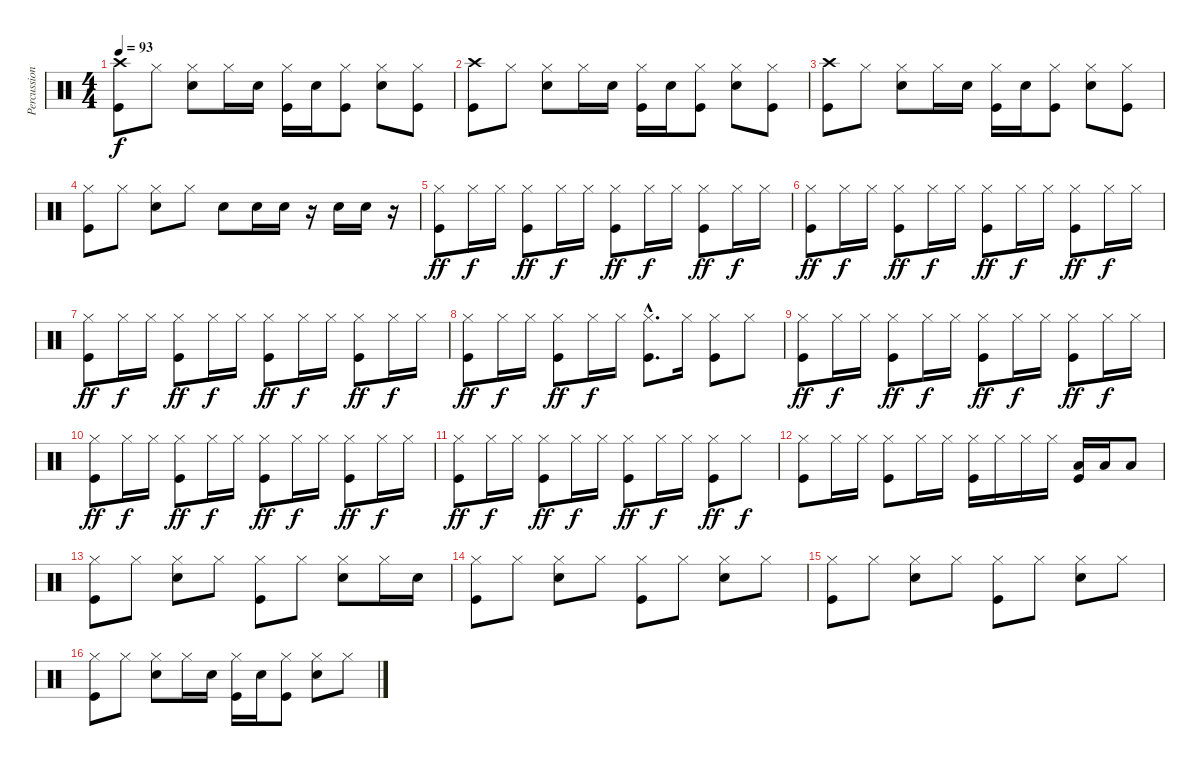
\track ("Percussion" "Percussion") {instrument percussion}
\staff {score}
\articulation defaults
\ts (4 4)
\tempo 93
\clef neutral
\ks c
("Crash high (hit)" "Kick (hit)").8{dy f} "Hi-Hat (closed)".8 ("Hi-Hat (closed)" "Snare (hit) 2").8 "Hi-Hat (closed)".16 "Snare (hit) 2".16 ("Hi-Hat (closed)" "Kick (hit)").16 "Snare (hit) 2".16 ("Hi-Hat (closed)" "Kick (hit)").8 ("Hi-Hat (closed)" "Snare (hit) 2").8 ("Hi-Hat (closed)" "Kick (hit)").8 |
("Crash high (hit)" "Kick (hit)").8 "Hi-Hat (closed)".8 ("Hi-Hat (closed)" "Snare (hit) 2").8 "Hi-Hat (closed)".16 "Snare (hit) 2".16 ("Hi-Hat (closed)" "Kick (hit)").16 "Snare (hit) 2".16 ("Hi-Hat (closed)" "Kick (hit)").8 ("Hi-Hat (closed)" "Snare (hit) 2").8 ("Hi-Hat (closed)" "Kick (hit)").8 |
("Crash high (hit)" "Kick (hit)").8 "Hi-Hat (closed)".8 ("Hi-Hat (closed)" "Snare (hit) 2").8 "Hi-Hat (closed)".16 "Snare (hit) 2".16 ("Hi-Hat (closed)" "Kick (hit)").16 "Snare (hit) 2".16 ("Hi-Hat (closed)" "Kick (hit)").8 ("Hi-Hat (closed)" "Snare (hit) 2").8 ("Hi-Hat (closed)" "Kick (hit)").8 |
("Hi-Hat (closed)" "Kick (hit)").8 "Hi-Hat (closed)".8 ("Hi-Hat (closed)" "Snare (hit) 2").8 "Hi-Hat (closed)".8 "Snare (hit) 2".8 "Snare (hit) 2".16 "Snare (hit) 2".16 r.16 "Snare (hit) 2".16 "Snare (hit) 2".16 r.16 |
("Hi-Hat (closed)" "Kick (hit)").8{dy ff} "Hi-Hat (closed)".16{dy f} "Hi-Hat (closed)".16 ("Hi-Hat (closed)" "Kick (hit)").8{dy ff} "Hi-Hat (closed)".16{dy f} "Hi-Hat (closed)".16 ("Hi-Hat (closed)" "Kick (hit)").8{dy ff} "Hi-Hat (closed)".16{dy f} "Hi-Hat (closed)".16 ("Hi-Hat (closed)" "Kick (hit)").8{dy ff} "Hi-Hat (closed)".16{dy f} "Hi-Hat (closed)".16 |
("Hi-Hat (closed)" "Kick (hit)").8{dy ff} "Hi-Hat (closed)".16{dy f} "Hi-Hat (closed)".16 ("Hi-Hat (closed)" "Kick (hit)").8{dy ff} "Hi-Hat (closed)".16{dy f} "Hi-Hat (closed)".16 ("Hi-Hat (closed)" "Kick (hit)").8{dy ff} "Hi-Hat (closed)".16{dy f} "Hi-Hat (closed)".16 ("Hi-Hat (closed)" "Kick (hit)").8{dy ff} "Hi-Hat (closed)".16{dy f} "Hi-Hat (closed)".16 |
("Hi-Hat (closed)" "Kick (hit)").8{dy ff} "Hi-Hat (closed)".16{dy f} "Hi-Hat (closed)".16 ("Hi-Hat (closed)" "Kick (hit)").8{dy ff} "Hi-Hat (closed)".16{dy f} "Hi-Hat (closed)".16 ("Hi-Hat (closed)" "Kick (hit)").8{dy ff} "Hi-Hat (closed)".16{dy f} "Hi-Hat (closed)".16 ("Hi-Hat (closed)" "Kick (hit)").8{dy ff} "Hi-Hat (closed)".16{dy f} "Hi-Hat (closed)".16 |
("Hi-Hat (closed)" "Kick (hit)").8{dy ff} "Hi-Hat (closed)".16{dy f} "Hi-Hat (closed)".16 ("Hi-Hat (closed)" "Kick (hit)").8{dy ff} "Hi-Hat (closed)".16{dy f} "Hi-Hat (closed)".16 ("Hi-Hat (closed)"{hac} "Kick (hit)"{hac}).8{d} "Hi-Hat (closed)".16 ("Hi-Hat (closed)" "Kick (hit)").8 "Hi-Hat (closed)".8 |
("Hi-Hat (closed)" "Kick (hit)").8{dy ff} "Hi-Hat (closed)".16{dy f} "Hi-Hat (closed)".16 ("Hi-Hat (closed)" "Kick (hit)").8{dy ff} "Hi-Hat (closed)".16{dy f} "Hi-Hat (closed)".16 ("Hi-Hat (closed)" "Kick (hit)").8{dy ff} "Hi-Hat (closed)".16{dy f} "Hi-Hat (closed)".16 ("Hi-Hat (closed)" "Kick (hit)").8{dy ff} "Hi-Hat (closed)".16{dy f} "Hi-Hat (closed)".16 |
("Hi-Hat (closed)" "Kick (hit)").8{dy ff} "Hi-Hat (closed)".16{dy f} "Hi-Hat (closed)".16 ("Hi-Hat (closed)" "Kick (hit)").8{dy ff} "Hi-Hat (closed)".16{dy f} "Hi-Hat (closed)".16 ("Hi-Hat (closed)" "Kick (hit)").8{dy ff} "Hi-Hat (closed)".16{dy f} "Hi-Hat (closed)".16 ("Hi-Hat (closed)" "Kick (hit)").8{dy ff} "Hi-Hat (closed)".16{dy f} "Hi-Hat (closed)".16 |
("Hi-Hat (closed)" "Kick (hit)").8{dy ff} "Hi-Hat (closed)".16{dy f} "Hi-Hat (closed)".16 ("Hi-Hat (closed)" "Kick (hit)").8{dy ff} "Hi-Hat (closed)".16{dy f} "Hi-Hat (closed)".16 ("Hi-Hat (closed)" "Kick (hit)").8{dy ff} "Hi-Hat (closed)".16{dy f} "Hi-Hat (closed)".16 ("Hi-Hat (closed)" "Kick (hit)").8{dy ff} "Hi-Hat (closed)".8{dy f} |
("Hi-Hat (closed)" "Kick (hit)").8 "Hi-Hat (closed)".16 "Hi-Hat (closed)".16 ("Hi-Hat (closed)" "Kick (hit)").8 "Hi-Hat (closed)".16 "Hi-Hat (closed)".16 ("Hi-Hat (closed)" "Kick (hit)").16 "Hi-Hat (closed)".16 "Hi-Hat (closed)".16 "Hi-Hat (closed)".16 ("Low Floor Tom (hit)" "Kick (hit)").16 "Low Floor Tom (hit)".16 "Low Floor Tom (hit)".8 |
("Hi-Hat (closed)" "Kick (hit)").8 "Hi-Hat (closed)".8 ("Hi-Hat (closed)" "Snare (hit) 2").8 "Hi-Hat (closed)".8 ("Hi-Hat (closed)" "Kick (hit)").8 "Hi-Hat (closed)".8 ("Hi-Hat (closed)" "Snare (hit) 2").8 "Hi-Hat (closed)".16 "Snare (hit) 2".16 |
("Hi-Hat (closed)" "Kick (hit)").8 "Hi-Hat (closed)".8 ("Hi-Hat (closed)" "Snare (hit) 2").8 "Hi-Hat (closed)".8 ("Hi-Hat (closed)" "Kick (hit)").8 "Hi-Hat (closed)".8 ("Hi-Hat (closed)" "Snare (hit) 2").8 "Hi-Hat (closed)".8 |
("Hi-Hat (closed)" "Kick (hit)").8 "Hi-Hat (closed)".8 ("Hi-Hat (closed)" "Snare (hit) 2").8 "Hi-Hat (closed)".8 ("Hi-Hat (closed)" "Kick (hit)").8 "Hi-Hat (closed)".8 ("Hi-Hat (closed)" "Snare (hit) 2").8 "Hi-Hat (closed)".8 |
("Hi-Hat (closed)" "Kick (hit)").8 "Hi-Hat (closed)".8 ("Hi-Hat (closed)" "Snare (hit) 2").8 "Hi-Hat (closed)".16 "Snare (hit) 2".16 ("Hi-Hat (closed)" "Kick (hit)").16 "Snare (hit) 2".16 ("Hi-Hat (closed)" "Kick (hit)").8 ("Hi-Hat (closed)" "Snare (hit) 2").8 "Hi-Hat (closed)".8
